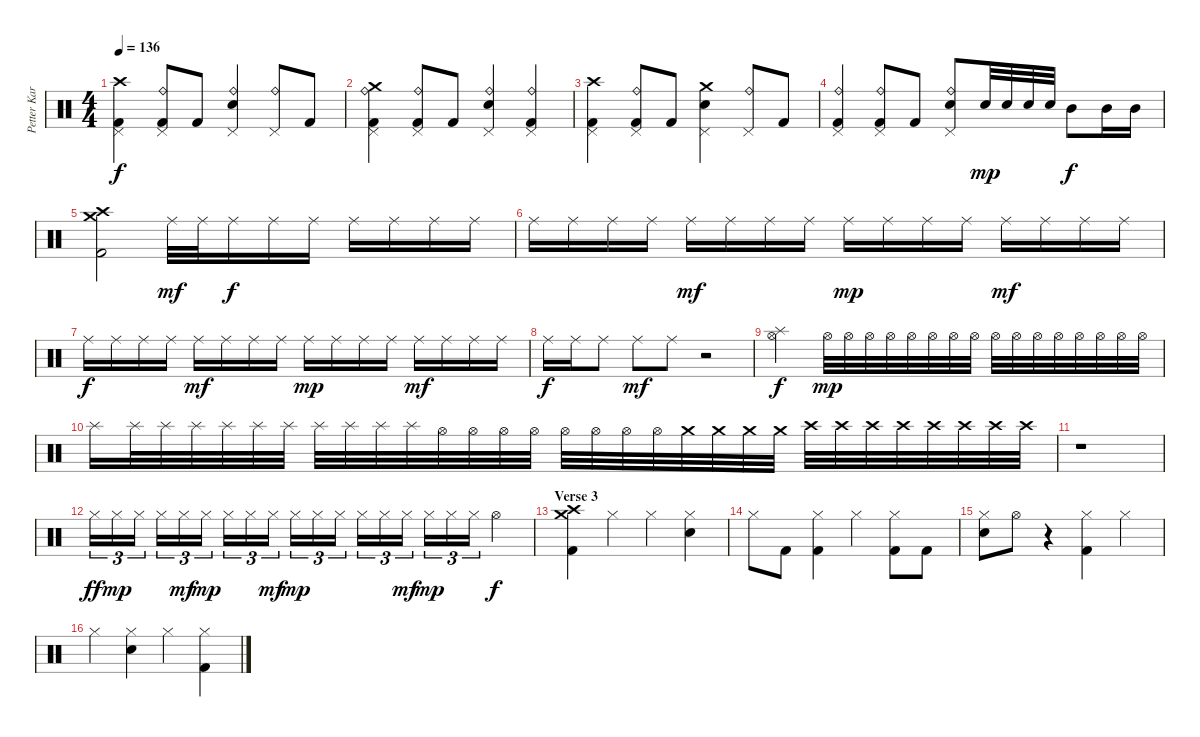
\track ("Petter Karlsson" "Petter Kar") {instrument percussion}
\staff {score}
\articulation defaults
\ts (4 4)
\tempo 136
\clef neutral
\ks c
("Crash high (hit)" "Pedal Hi-Hat (hit)" "Kick (hit) 2").4{dy f} ("Ride (bell)" "Pedal Hi-Hat (hit)" "Kick (hit) 2").8 "Kick (hit) 2".8 ("Ride (bell)" "Snare (hit) 2" "Pedal Hi-Hat (hit)").4 ("Ride (bell)" "Pedal Hi-Hat (hit)").8 "Kick (hit) 2".8 |
("Ride (bell)" "Crash medium (hit)" "Pedal Hi-Hat (hit)" "Kick (hit) 2").4 ("Ride (bell)" "Pedal Hi-Hat (hit)" "Kick (hit) 2").8 "Kick (hit) 2".8 ("Ride (bell)" "Snare (hit) 2" "Pedal Hi-Hat (hit)").4 ("Ride (bell)" "Pedal Hi-Hat (hit)" "Kick (hit) 2").4 |
("Crash high (hit)" "Pedal Hi-Hat (hit)" "Kick (hit) 2").4 ("Ride (bell)" "Pedal Hi-Hat (hit)" "Kick (hit) 2").8 "Kick (hit) 2".8 ("Crash medium (hit)" "Snare (hit) 2" "Pedal Hi-Hat (hit)").4 ("Ride (bell)" "Pedal Hi-Hat (hit)").8 "Kick (hit) 2".8 |
("Ride (bell)" "Pedal Hi-Hat (hit)" "Kick (hit) 2").4 ("Ride (bell)" "Pedal Hi-Hat (hit)" "Kick (hit) 2").8 "Kick (hit) 2".8 ("Ride (bell)" "Snare (hit) 2" "Pedal Hi-Hat (hit)").8 "Snare (hit) 2".32{dy mp} "Snare (hit) 2".32 "Snare (hit) 2".32 "Snare (hit) 2".32 "Mid Tom (hit)".8{dy f} "Mid Tom (hit)".16 "Mid Tom (hit)".16 |
("Crash high (hit)" "Crash medium (hit)" "Kick (hit) 2").2 "Ride (middle)".32{dy mf} "Ride (middle)".32 "Ride (middle)".16{dy f} "Ride (middle)".16 "Ride (middle)".16 "Ride (middle)".16 "Ride (middle)".16 "Ride (middle)".16 "Ride (middle)".16 |
"Ride (middle)".16 "Ride (middle)".16 "Ride (middle)".16 "Ride (middle)".16 "Ride (middle)".16{dy mf} "Ride (middle)".16 "Ride (middle)".16 "Ride (middle)".16 "Ride (middle)".16{dy mp} "Ride (middle)".16 "Ride (middle)".16 "Ride (middle)".16 "Ride (middle)".16{dy mf} "Ride (middle)".16 "Ride (middle)".16 "Ride (middle)".16 |
"Ride (middle)".16{dy f} "Ride (middle)".16 "Ride (middle)".16 "Ride (middle)".16 "Ride (middle)".16{dy mf} "Ride (middle)".16 "Ride (middle)".16 "Ride (middle)".16 "Ride (middle)".16{dy mp} "Ride (middle)".16 "Ride (middle)".16 "Ride (middle)".16 "Ride (middle)".16{dy mf} "Ride (middle)".16 "Ride (middle)".16 "Ride (middle)".16 |
"Ride (middle)".16{dy f} "Ride (middle)".16 "Ride (middle)".8 "Ride (middle)".8{dy mf} "Ride (middle)".8 r.2 |
("Hi-Hat (open)" "Splash (hit)").2{dy f} "Hi-Hat (open)".32{dy mp} "Hi-Hat (open)".32 "Hi-Hat (open)".32 "Hi-Hat (open)".32 "Hi-Hat (open)".32 "Hi-Hat (open)".32 "Hi-Hat (open)".32 "Hi-Hat (open)".32 "Hi-Hat (open)".32 "Hi-Hat (open)".32 "Hi-Hat (open)".32 "Hi-Hat (open)".32 "Hi-Hat (open)".32 "Hi-Hat (open)".32 "Hi-Hat (open)".32 "Hi-Hat (open)".32 |
"Splash (hit)".16 "Splash (hit)".32 "Splash (hit)".32 "Splash (hit)".32 "Splash (hit)".32 "Splash (hit)".32 "Splash (hit)".32 "Splash (hit)".32 "Splash (hit)".32 "Splash (hit)".32 "Splash (hit)".32 "Hi-Hat (open)".32 "Hi-Hat (open)".32 "Hi-Hat (open)".32 "Hi-Hat (open)".32 "Hi-Hat (open)".32 "Hi-Hat (open)".32 "Hi-Hat (open)".32 "Hi-Hat (open)".32 "Crash medium (hit)".32 "Crash medium (hit)".32 "Crash medium (hit)".32 "Crash medium (hit)".32 "Crash high (hit)".32 "Crash high (hit)".32 "Crash high (hit)".32 "Crash high (hit)".32 "Crash high (hit)".32 "Crash high (hit)".32 "Crash high (hit)".32 "Crash high (hit)".32 |
r.1 |
"Hi-Hat (closed)".16{tu (3 2) dy ff} "Hi-Hat (closed)".16{tu (3 2) dy mp} "Hi-Hat (closed)".16{tu (3 2)} "Hi-Hat (closed)".16{tu (3 2)} "Hi-Hat (closed)".16{tu (3 2) dy mf} "Hi-Hat (closed)".16{tu (3 2) dy mp} "Hi-Hat (closed)".16{tu (3 2)} "Hi-Hat (closed)".16{tu (3 2)} "Hi-Hat (closed)".16{tu (3 2) dy mf} "Hi-Hat (closed)".16{tu (3 2) dy mp} "Hi-Hat (closed)".16{tu (3 2)} "Hi-Hat (closed)".16{tu (3 2)} "Hi-Hat (closed)".16{tu (3 2)} "Hi-Hat (closed)".16{tu (3 2)} "Hi-Hat (closed)".16{tu (3 2) dy mf} "Hi-Hat (closed)".16{tu (3 2) dy mp} "Hi-Hat (closed)".16{tu (3 2)} "Hi-Hat (closed)".16{tu (3 2)} "Hi-Hat (open)".4{dy f} |
\section ("" "Verse 3")
("Crash high (hit)" "Crash medium (hit)" "Kick (hit) 2").4 "Hi-Hat (closed)".4 "Hi-Hat (closed)".4 ("Hi-Hat (closed)" "Snare (hit) 2").4 |
"Hi-Hat (closed)".8 "Kick (hit) 2".8 ("Hi-Hat (closed)" "Kick (hit) 2").4 "Hi-Hat (closed)".4 ("Hi-Hat (closed)" "Kick (hit) 2").8 "Kick (hit) 2".8 |
("Hi-Hat (closed)" "Snare (hit) 2").8 "Hi-Hat (open)".8 r.4 ("Hi-Hat (closed)" "Kick (hit) 2").4 "Hi-Hat (closed)".4 |
"Hi-Hat (closed)".4 ("Hi-Hat (closed)" "Snare (hit) 2").4 "Hi-Hat (closed)".4 ("Hi-Hat (closed)" "Kick (hit) 2").4
